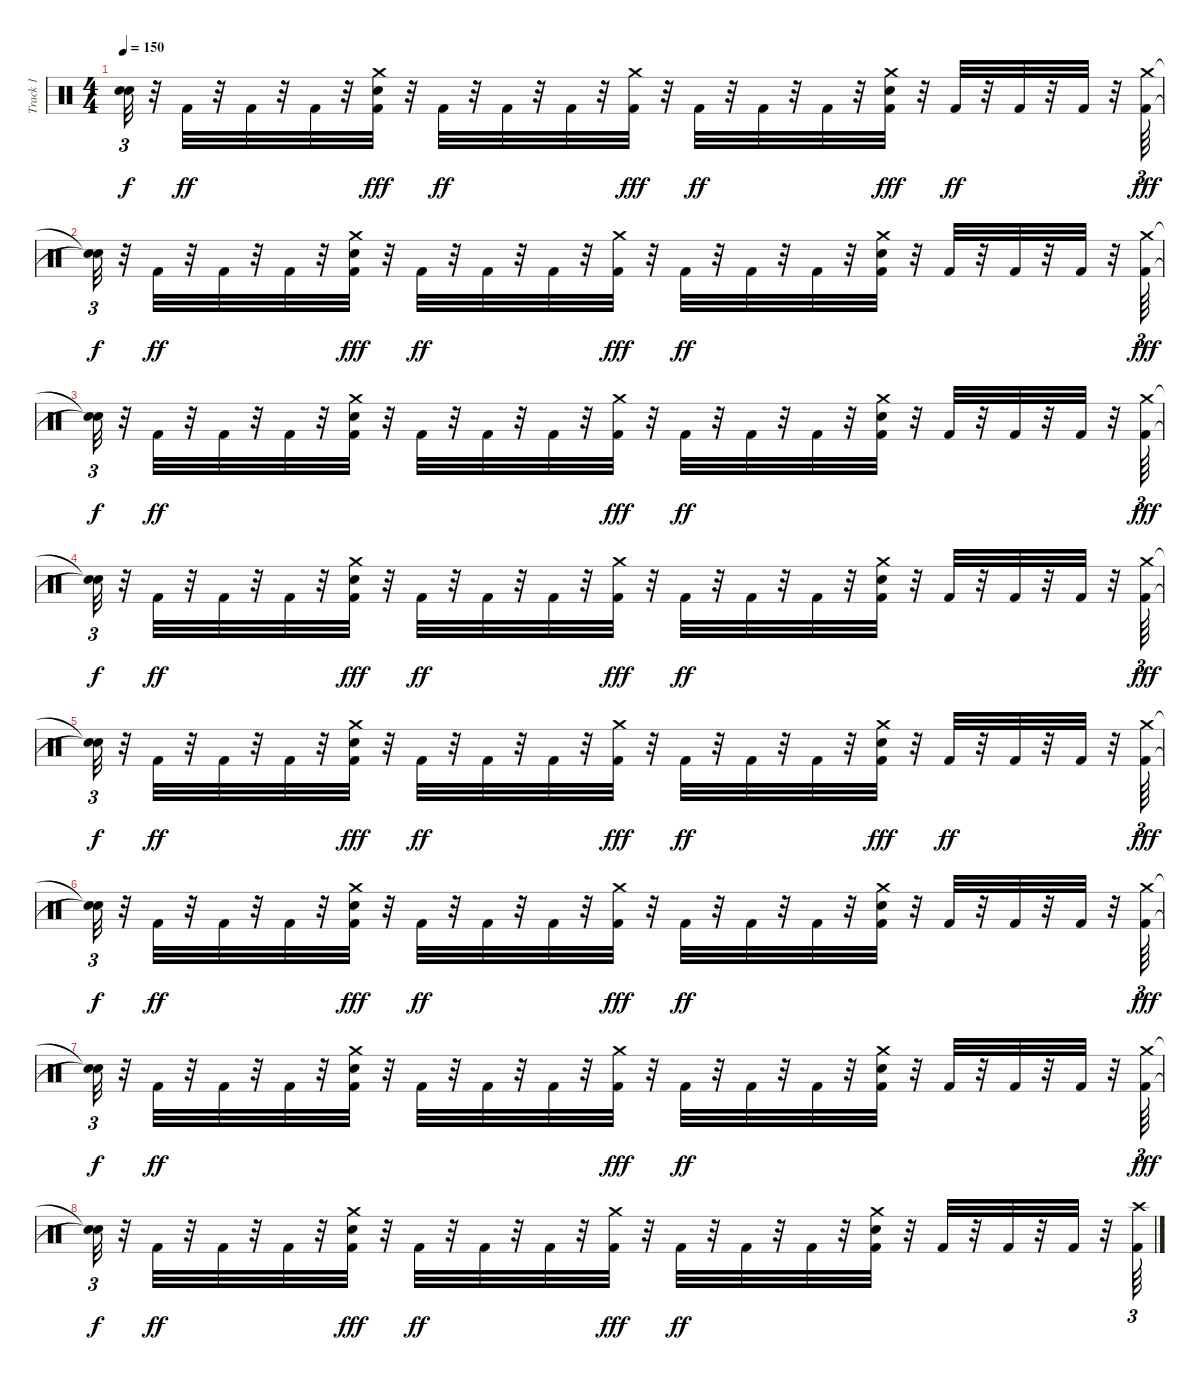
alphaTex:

\track ("Track 1" "Track 1") {instrument percussion}
\staff {score}
\articulation defaults
\ts (4 4)
\tempo 150
\clef neutral
\ks c
("Snare (hit)"{t} "Snare (hit)"{t}).32{tu (3 2) dy f} r.32 "Kick (hit) 2".32{dy ff} r.32 "Kick (hit) 2".32 r.32 "Kick (hit) 2".32 r.32 ("Crash medium (hit)" "Kick (hit) 2" "Snare (hit) 2").32{dy fff} r.32 "Kick (hit) 2".32{dy ff} r.32 "Kick (hit) 2".32 r.32 "Kick (hit) 2".32 r.32 ("Kick (hit) 2" "Crash medium (hit)").32{dy fff} r.32 "Kick (hit) 2".32{dy ff} r.32 "Kick (hit) 2".32 r.32 "Kick (hit) 2".32 r.32 ("Crash medium (hit)" "Kick (hit) 2" "Snare (hit) 2").32{dy fff} r.32 "Kick (hit) 2".32{dy ff} r.32 "Kick (hit) 2".32 r.32 "Kick (hit) 2".32 r.32 ("Kick (hit) 2" "Crash medium (hit)").64{tu (3 2) dy fff} |
("Snare (hit)"{t} "Snare (hit)"{t}).32{tu (3 2) dy f} r.32 "Kick (hit) 2".32{dy ff} r.32 "Kick (hit) 2".32 r.32 "Kick (hit) 2".32 r.32 ("Crash medium (hit)" "Kick (hit) 2" "Snare (hit) 2").32{dy fff} r.32 "Kick (hit) 2".32{dy ff} r.32 "Kick (hit) 2".32 r.32 "Kick (hit) 2".32 r.32 ("Kick (hit) 2" "Crash medium (hit)").32{dy fff} r.32 "Kick (hit) 2".32{dy ff} r.32 "Kick (hit) 2".32 r.32 "Kick (hit) 2".32 r.32 ("Snare (hit) 2" "Crash medium (hit)" "Kick (hit) 2").32 r.32 "Kick (hit) 2".32 r.32 "Kick (hit) 2".32 r.32 "Kick (hit) 2".32 r.32 ("Kick (hit) 2" "Crash medium (hit)").64{tu (3 2) dy fff} |
("Snare (hit)"{t} "Snare (hit)"{t}).32{tu (3 2) dy f} r.32 "Kick (hit) 2".32{dy ff} r.32 "Kick (hit) 2".32 r.32 "Kick (hit) 2".32 r.32 ("Crash medium (hit)" "Snare (hit) 2" "Kick (hit) 2").32 r.32 "Kick (hit) 2".32 r.32 "Kick (hit) 2".32 r.32 "Kick (hit) 2".32 r.32 ("Kick (hit) 2" "Crash medium (hit)").32{dy fff} r.32 "Kick (hit) 2".32{dy ff} r.32 "Kick (hit) 2".32 r.32 "Kick (hit) 2".32 r.32 ("Snare (hit) 2" "Crash medium (hit)" "Kick (hit) 2").32 r.32 "Kick (hit) 2".32 r.32 "Kick (hit) 2".32 r.32 "Kick (hit) 2".32 r.32 ("Kick (hit) 2" "Crash medium (hit)").64{tu (3 2) dy fff} |
("Snare (hit)"{t} "Snare (hit)"{t}).32{tu (3 2) dy f} r.32 "Kick (hit) 2".32{dy ff} r.32 "Kick (hit) 2".32 r.32 "Kick (hit) 2".32 r.32 ("Crash medium (hit)" "Kick (hit) 2" "Snare (hit) 2").32{dy fff} r.32 "Kick (hit) 2".32{dy ff} r.32 "Kick (hit) 2".32 r.32 "Kick (hit) 2".32 r.32 ("Kick (hit) 2" "Crash medium (hit)").32{dy fff} r.32 "Kick (hit) 2".32{dy ff} r.32 "Kick (hit) 2".32 r.32 "Kick (hit) 2".32 r.32 ("Crash medium (hit)" "Snare (hit) 2" "Kick (hit) 2").32 r.32 "Kick (hit) 2".32 r.32 "Kick (hit) 2".32 r.32 "Kick (hit) 2".32 r.32 ("Kick (hit) 2" "Crash medium (hit)").64{tu (3 2) dy fff} |
("Snare (hit)"{t} "Snare (hit)"{t}).32{tu (3 2) dy f} r.32 "Kick (hit) 2".32{dy ff} r.32 "Kick (hit) 2".32 r.32 "Kick (hit) 2".32 r.32 ("Crash medium (hit)" "Kick (hit) 2" "Snare (hit) 2").32{dy fff} r.32 "Kick (hit) 2".32{dy ff} r.32 "Kick (hit) 2".32 r.32 "Kick (hit) 2".32 r.32 ("Kick (hit) 2" "Crash medium (hit)").32{dy fff} r.32 "Kick (hit) 2".32{dy ff} r.32 "Kick (hit) 2".32 r.32 "Kick (hit) 2".32 r.32 ("Crash medium (hit)" "Kick (hit) 2" "Snare (hit) 2").32{dy fff} r.32 "Kick (hit) 2".32{dy ff} r.32 "Kick (hit) 2".32 r.32 "Kick (hit) 2".32 r.32 ("Kick (hit) 2" "Crash medium (hit)").64{tu (3 2) dy fff} |
("Snare (hit)"{t} "Snare (hit)"{t}).32{tu (3 2) dy f} r.32 "Kick (hit) 2".32{dy ff} r.32 "Kick (hit) 2".32 r.32 "Kick (hit) 2".32 r.32 ("Crash medium (hit)" "Kick (hit) 2" "Snare (hit) 2").32{dy fff} r.32 "Kick (hit) 2".32{dy ff} r.32 "Kick (hit) 2".32 r.32 "Kick (hit) 2".32 r.32 ("Kick (hit) 2" "Crash medium (hit)").32{dy fff} r.32 "Kick (hit) 2".32{dy ff} r.32 "Kick (hit) 2".32 r.32 "Kick (hit) 2".32 r.32 ("Snare (hit) 2" "Crash medium (hit)" "Kick (hit) 2").32 r.32 "Kick (hit) 2".32 r.32 "Kick (hit) 2".32 r.32 "Kick (hit) 2".32 r.32 ("Kick (hit) 2" "Crash medium (hit)").64{tu (3 2) dy fff} |
("Snare (hit)"{t} "Snare (hit)"{t}).32{tu (3 2) dy f} r.32 "Kick (hit) 2".32{dy ff} r.32 "Kick (hit) 2".32 r.32 "Kick (hit) 2".32 r.32 ("Crash medium (hit)" "Snare (hit) 2" "Kick (hit) 2").32 r.32 "Kick (hit) 2".32 r.32 "Kick (hit) 2".32 r.32 "Kick (hit) 2".32 r.32 ("Kick (hit) 2" "Crash medium (hit)").32{dy fff} r.32 "Kick (hit) 2".32{dy ff} r.32 "Kick (hit) 2".32 r.32 "Kick (hit) 2".32 r.32 ("Snare (hit) 2" "Crash medium (hit)" "Kick (hit) 2").32 r.32 "Kick (hit) 2".32 r.32 "Kick (hit) 2".32 r.32 "Kick (hit) 2".32 r.32 ("Kick (hit) 2" "Crash medium (hit)").64{tu (3 2) dy fff} |
("Snare (hit)"{t} "Snare (hit)"{t}).32{tu (3 2) dy f} r.32 "Kick (hit) 2".32{dy ff} r.32 "Kick (hit) 2".32 r.32 "Kick (hit) 2".32 r.32 ("Crash medium (hit)" "Kick (hit) 2" "Snare (hit) 2").32{dy fff} r.32 "Kick (hit) 2".32{dy ff} r.32 "Kick (hit) 2".32 r.32 "Kick (hit) 2".32 r.32 ("Kick (hit) 2" "Crash medium (hit)").32{dy fff} r.32 "Kick (hit) 2".32{dy ff} r.32 "Kick (hit) 2".32 r.32 "Kick (hit) 2".32 r.32 ("Crash medium (hit)" "Snare (hit) 2" "Kick (hit) 2").32 r.32 "Kick (hit) 2".32 r.32 "Kick (hit) 2".32 r.32 "Kick (hit) 2".32 r.32 ("Crash high (hit)" "Kick (hit) 2").64{tu (3 2)}
